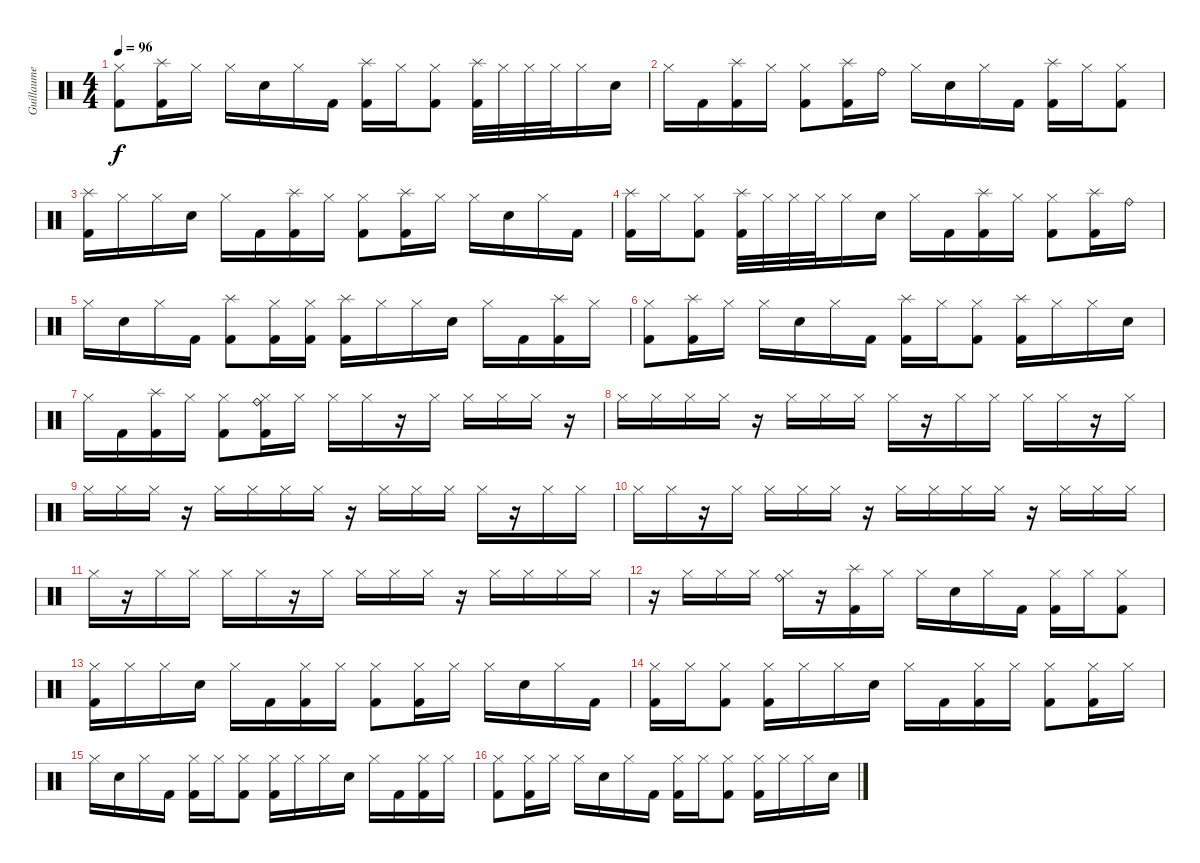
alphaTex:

\track ("Guillaume" "Guillaume") {instrument percussion}
\staff {score}
\articulation defaults
\ts (4 4)
\tempo 96
\clef neutral
\ks c
("Hi-Hat (closed)" "Kick (hit) 2").8{dy f} ("Splash (hit)" "Kick (hit) 2").16 "Hi-Hat (closed)".16 "Hi-Hat (closed)".16 "Electric Snare (hit)".16 "Hi-Hat (closed)".16 "Kick (hit) 2".16 ("Splash (hit)" "Kick (hit) 2").16 "Hi-Hat (closed)".16 ("Hi-Hat (closed)" "Kick (hit) 2").8 ("Splash (hit)" "Kick (hit) 2").32 "Hi-Hat (closed)".32 "Hi-Hat (closed)".32 "Hi-Hat (closed)".32 "Hi-Hat (closed)".16 "Electric Snare (hit)".16 |
"Hi-Hat (closed)".16 "Kick (hit) 2".16 ("Splash (hit)" "Kick (hit) 2").16 "Hi-Hat (closed)".16 ("Hi-Hat (closed)" "Kick (hit) 2").8 ("Splash (hit)" "Kick (hit) 2").16 "Ride (bell)".16 "Hi-Hat (closed)".16 "Electric Snare (hit)".16 "Hi-Hat (closed)".16 "Kick (hit) 2".16 ("Splash (hit)" "Kick (hit) 2").16 "Hi-Hat (closed)".16 ("Hi-Hat (closed)" "Kick (hit) 2").8 |
("Splash (hit)" "Kick (hit) 2").16 "Hi-Hat (closed)".16 "Hi-Hat (closed)".16 "Electric Snare (hit)".16 "Hi-Hat (closed)".16 "Kick (hit) 2".16 ("Splash (hit)" "Kick (hit) 2").16 "Hi-Hat (closed)".16 ("Hi-Hat (closed)" "Kick (hit) 2").8 ("Splash (hit)" "Kick (hit) 2").16 "Hi-Hat (closed)".16 "Hi-Hat (closed)".16 "Electric Snare (hit)".16 "Hi-Hat (closed)".16 "Kick (hit) 2".16 |
("Splash (hit)" "Kick (hit) 2").16 "Hi-Hat (closed)".16 ("Hi-Hat (closed)" "Kick (hit) 2").8 ("Splash (hit)" "Kick (hit) 2").32 "Hi-Hat (closed)".32 "Hi-Hat (closed)".32 "Hi-Hat (closed)".32 "Hi-Hat (closed)".16 "Electric Snare (hit)".16 "Hi-Hat (closed)".16 "Kick (hit) 2".16 ("Splash (hit)" "Kick (hit) 2").16 "Hi-Hat (closed)".16 ("Hi-Hat (closed)" "Kick (hit) 2").8 ("Splash (hit)" "Kick (hit) 2").16 "Ride (bell)".16 |
"Hi-Hat (closed)".16 "Electric Snare (hit)".16 "Hi-Hat (closed)".16 "Kick (hit) 2".16 ("Splash (hit)" "Kick (hit) 2").8 ("Kick (hit) 2" "Hi-Hat (closed)").16 ("Hi-Hat (closed)" "Kick (hit) 2").16 ("Splash (hit)" "Kick (hit) 2").16 "Hi-Hat (closed)".16 "Hi-Hat (closed)".16 "Electric Snare (hit)".16 "Hi-Hat (closed)".16 "Kick (hit) 2".16 ("Splash (hit)" "Kick (hit) 2").16 "Hi-Hat (closed)".16 |
("Hi-Hat (closed)" "Kick (hit) 2").8 ("Splash (hit)" "Kick (hit) 2").16 "Hi-Hat (closed)".16 "Hi-Hat (closed)".16 "Electric Snare (hit)".16 "Hi-Hat (closed)".16 "Kick (hit) 2".16 ("Splash (hit)" "Kick (hit) 2").16 "Hi-Hat (closed)".16 ("Hi-Hat (closed)" "Kick (hit) 2").8 ("Splash (hit)" "Kick (hit) 2").16 "Hi-Hat (closed)".16 "Hi-Hat (closed)".16 "Electric Snare (hit)".16 |
"Hi-Hat (closed)".16 "Kick (hit) 2".16 ("Splash (hit)" "Kick (hit) 2").16 "Hi-Hat (closed)".16 ("Hi-Hat (closed)" "Kick (hit) 2").8 ("Ride (bell)" "Hi-Hat (closed)" "Kick (hit) 2").16 "Hi-Hat (closed)".16 "Hi-Hat (closed)".16 "Hi-Hat (closed)".16 r.16 "Hi-Hat (closed)".16 "Hi-Hat (closed)".16 "Hi-Hat (closed)".16 "Hi-Hat (closed)".16 r.16 |
"Hi-Hat (closed)".16 "Hi-Hat (closed)".16 "Hi-Hat (closed)".16 "Hi-Hat (closed)".16 r.16 "Hi-Hat (closed)".16 "Hi-Hat (closed)".16 "Hi-Hat (closed)".16 "Hi-Hat (closed)".16 r.16 "Hi-Hat (closed)".16 "Hi-Hat (closed)".16 "Hi-Hat (closed)".16 "Hi-Hat (closed)".16 r.16 "Hi-Hat (closed)".16 |
"Hi-Hat (closed)".16 "Hi-Hat (closed)".16 "Hi-Hat (closed)".16 r.16 "Hi-Hat (closed)".16 "Hi-Hat (closed)".16 "Hi-Hat (closed)".16 "Hi-Hat (closed)".16 r.16 "Hi-Hat (closed)".16 "Hi-Hat (closed)".16 "Hi-Hat (closed)".16 "Hi-Hat (closed)".16 r.16 "Hi-Hat (closed)".16 "Hi-Hat (closed)".16 |
"Hi-Hat (closed)".16 "Hi-Hat (closed)".16 r.16 "Hi-Hat (closed)".16 "Hi-Hat (closed)".16 "Hi-Hat (closed)".16 "Hi-Hat (closed)".16 r.16 "Hi-Hat (closed)".16 "Hi-Hat (closed)".16 "Hi-Hat (closed)".16 "Hi-Hat (closed)".16 r.16 "Hi-Hat (closed)".16 "Hi-Hat (closed)".16 "Hi-Hat (closed)".16 |
"Hi-Hat (closed)".16 r.16 "Hi-Hat (closed)".16 "Hi-Hat (closed)".16 "Hi-Hat (closed)".16 "Hi-Hat (closed)".16 r.16 "Hi-Hat (closed)".16 "Hi-Hat (closed)".16 "Hi-Hat (closed)".16 "Hi-Hat (closed)".16 r.16 "Hi-Hat (closed)".16 "Hi-Hat (closed)".16 "Hi-Hat (closed)".16 "Hi-Hat (closed)".16 |
r.16 "Hi-Hat (closed)".16 "Hi-Hat (closed)".16 "Hi-Hat (closed)".16 ("Ride (bell)" "Hi-Hat (closed)").16 r.16 ("Splash (hit)" "Kick (hit) 2").16 "Hi-Hat (closed)".16 "Hi-Hat (closed)".16 "Electric Snare (hit)".16 "Hi-Hat (closed)".16 "Kick (hit) 2".16 ("Hi-Hat (closed)" "Kick (hit) 2").16 "Hi-Hat (closed)".16 ("Hi-Hat (closed)" "Kick (hit) 2").8 |
("Hi-Hat (closed)" "Kick (hit) 2").16 "Hi-Hat (closed)".16 "Hi-Hat (closed)".16 "Electric Snare (hit)".16 "Hi-Hat (closed)".16 "Kick (hit) 2".16 ("Hi-Hat (closed)" "Kick (hit) 2").16 "Hi-Hat (closed)".16 ("Hi-Hat (closed)" "Kick (hit) 2").8 ("Hi-Hat (closed)" "Kick (hit) 2").16 "Hi-Hat (closed)".16 "Hi-Hat (closed)".16 "Electric Snare (hit)".16 "Hi-Hat (closed)".16 "Kick (hit) 2".16 |
("Hi-Hat (closed)" "Kick (hit) 2").16 "Hi-Hat (closed)".16 ("Hi-Hat (closed)" "Kick (hit) 2").8 ("Hi-Hat (closed)" "Kick (hit) 2").16 "Hi-Hat (closed)".16 "Hi-Hat (closed)".16 "Electric Snare (hit)".16 "Hi-Hat (closed)".16 "Kick (hit) 2".16 ("Hi-Hat (closed)" "Kick (hit) 2").16 "Hi-Hat (closed)".16 ("Hi-Hat (closed)" "Kick (hit) 2").8 ("Hi-Hat (closed)" "Kick (hit) 2").16 "Hi-Hat (closed)".16 |
"Hi-Hat (closed)".16 "Electric Snare (hit)".16 "Hi-Hat (closed)".16 "Kick (hit) 2".16 ("Hi-Hat (closed)" "Kick (hit) 2").16 "Hi-Hat (closed)".16 ("Hi-Hat (closed)" "Kick (hit) 2").8 ("Hi-Hat (closed)" "Kick (hit) 2").16 "Hi-Hat (closed)".16 "Hi-Hat (closed)".16 "Electric Snare (hit)".16 "Hi-Hat (closed)".16 "Kick (hit) 2".16 ("Hi-Hat (closed)" "Kick (hit) 2").16 "Hi-Hat (closed)".16 |
("Hi-Hat (closed)" "Kick (hit) 2").8 ("Hi-Hat (closed)" "Kick (hit) 2").16 "Hi-Hat (closed)".16 "Hi-Hat (closed)".16 "Electric Snare (hit)".16 "Hi-Hat (closed)".16 "Kick (hit) 2".16 ("Hi-Hat (closed)" "Kick (hit) 2").16 "Hi-Hat (closed)".16 ("Hi-Hat (closed)" "Kick (hit) 2").8 ("Hi-Hat (closed)" "Kick (hit) 2").16 "Hi-Hat (closed)".16 "Hi-Hat (closed)".16 "Electric Snare (hit)".16
